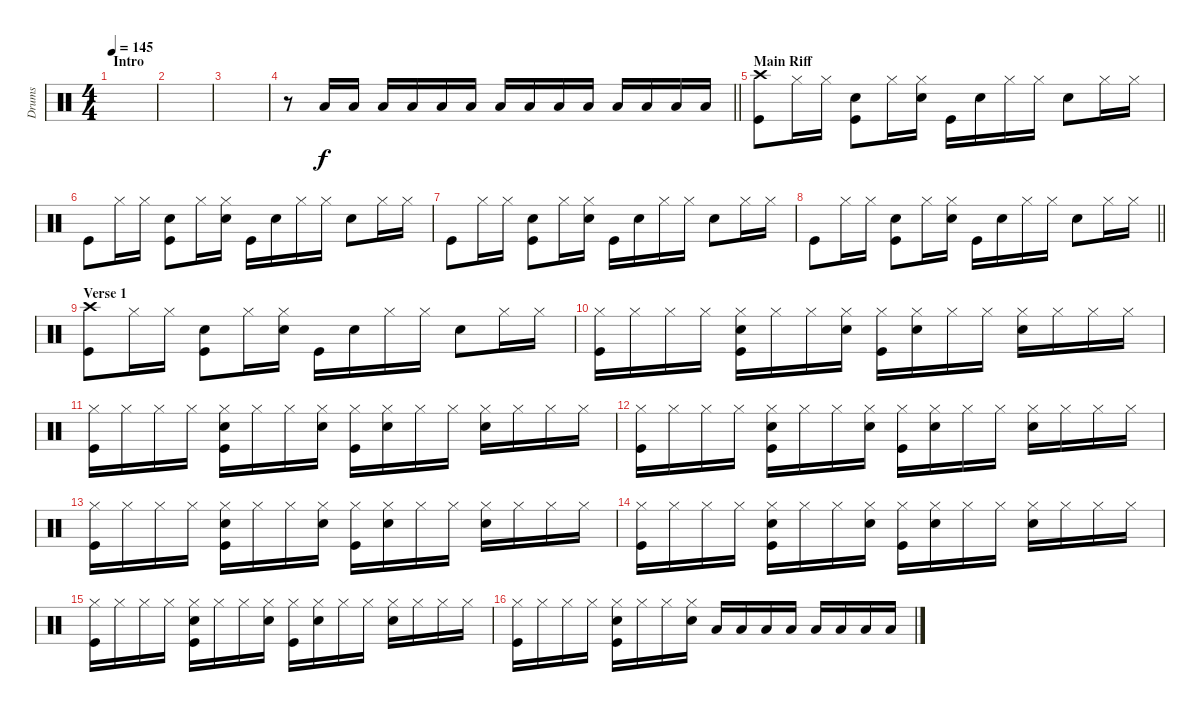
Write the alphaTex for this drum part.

\track ("Drums" "Drums") {instrument percussion}
\staff {score}
\articulation defaults
\ts (4 4)
\section ("" "Intro")
\tempo 145
\clef neutral
\ks c
|
|
|
\barLineRight lightlight
r.8 "Low Tom (hit)".16 "Low Tom (hit)".16 "Low Tom (hit)".16 "Low Tom (hit)".16 "Low Tom (hit)".16 "Low Tom (hit)".16 "Low Tom (hit)".16 "Low Tom (hit)".16 "Low Tom (hit)".16 "Low Tom (hit)".16 "Low Tom (hit)".16 "Low Tom (hit)".16 "Low Tom (hit)".16 "Low Tom (hit)".16 |
\section ("" "Main Riff")
("Crash high (hit)" "Kick (hit)").8 "Hi-Hat (closed)".16 "Hi-Hat (closed)".16 ("Electric Snare (hit)" "Kick (hit)").8 "Hi-Hat (closed)".16 ("Hi-Hat (closed)" "Electric Snare (hit)").16 "Kick (hit)".16 "Electric Snare (hit)".16 "Hi-Hat (closed)".16 "Hi-Hat (closed)".16 "Electric Snare (hit)".8 "Hi-Hat (closed)".16 "Hi-Hat (closed)".16 |
"Kick (hit)".8 "Hi-Hat (closed)".16 "Hi-Hat (closed)".16 ("Electric Snare (hit)" "Kick (hit)").8 "Hi-Hat (closed)".16 ("Hi-Hat (closed)" "Electric Snare (hit)").16 "Kick (hit)".16 "Electric Snare (hit)".16 "Hi-Hat (closed)".16 "Hi-Hat (closed)".16 "Electric Snare (hit)".8 "Hi-Hat (closed)".16 "Hi-Hat (closed)".16 |
"Kick (hit)".8 "Hi-Hat (closed)".16 "Hi-Hat (closed)".16 ("Electric Snare (hit)" "Kick (hit)").8 "Hi-Hat (closed)".16 ("Hi-Hat (closed)" "Electric Snare (hit)").16 "Kick (hit)".16 "Electric Snare (hit)".16 "Hi-Hat (closed)".16 "Hi-Hat (closed)".16 "Electric Snare (hit)".8 "Hi-Hat (closed)".16 "Hi-Hat (closed)".16 |
\barLineRight lightlight "Kick (hit)".8 "Hi-Hat (closed)".16 "Hi-Hat (closed)".16
("Electric Snare (hit)" "Kick (hit)").8 "Hi-Hat (closed)".16 ("Hi-Hat (closed)" "Electric Snare (hit)").16 "Kick (hit)".16 "Electric Snare (hit)".16 "Hi-Hat (closed)".16 "Hi-Hat (closed)".16 "Electric Snare (hit)".8 "Hi-Hat (closed)".16 "Hi-Hat (closed)".16 |
\section ("" "Verse 1")
("Crash high (hit)" "Kick (hit)").8 "Hi-Hat (closed)".16 "Hi-Hat (closed)".16 ("Electric Snare (hit)" "Kick (hit)").8 "Hi-Hat (closed)".16 ("Hi-Hat (closed)" "Electric Snare (hit)").16 "Kick (hit)".16 "Electric Snare (hit)".16 "Hi-Hat (closed)".16 "Hi-Hat (closed)".16 "Electric Snare (hit)".8 "Hi-Hat (closed)".16 "Hi-Hat (closed)".16 |
("Hi-Hat (closed)" "Kick (hit)").16 "Hi-Hat (closed)".16 "Hi-Hat (closed)".16 "Hi-Hat (closed)".16 ("Hi-Hat (closed)" "Electric Snare (hit)" "Kick (hit)").16 "Hi-Hat (closed)".16 "Hi-Hat (closed)".16 ("Hi-Hat (closed)" "Electric Snare (hit)").16 ("Hi-Hat (closed)" "Kick (hit)").16 ("Hi-Hat (closed)" "Electric Snare (hit)").16 "Hi-Hat (closed)".16 "Hi-Hat (closed)".16 ("Hi-Hat (closed)" "Electric Snare (hit)").16 "Hi-Hat (closed)".16 "Hi-Hat (closed)".16 "Hi-Hat (closed)".16 |
("Hi-Hat (closed)" "Kick (hit)").16 "Hi-Hat (closed)".16 "Hi-Hat (closed)".16 "Hi-Hat (closed)".16 ("Hi-Hat (closed)" "Electric Snare (hit)" "Kick (hit)").16 "Hi-Hat (closed)".16 "Hi-Hat (closed)".16 ("Hi-Hat (closed)" "Electric Snare (hit)").16 ("Hi-Hat (closed)" "Kick (hit)").16 ("Hi-Hat (closed)" "Electric Snare (hit)").16 "Hi-Hat (closed)".16 "Hi-Hat (closed)".16 ("Hi-Hat (closed)" "Electric Snare (hit)").16 "Hi-Hat (closed)".16 "Hi-Hat (closed)".16 "Hi-Hat (closed)".16 |
("Hi-Hat (closed)" "Kick (hit)").16 "Hi-Hat (closed)".16 "Hi-Hat (closed)".16 "Hi-Hat (closed)".16 ("Hi-Hat (closed)" "Electric Snare (hit)" "Kick (hit)").16 "Hi-Hat (closed)".16 "Hi-Hat (closed)".16 ("Hi-Hat (closed)" "Electric Snare (hit)").16 ("Hi-Hat (closed)" "Kick (hit)").16 ("Hi-Hat (closed)" "Electric Snare (hit)").16 "Hi-Hat (closed)".16 "Hi-Hat (closed)".16 ("Hi-Hat (closed)" "Electric Snare (hit)").16 "Hi-Hat (closed)".16 "Hi-Hat (closed)".16 "Hi-Hat (closed)".16 |
("Hi-Hat (closed)" "Kick (hit)").16 "Hi-Hat (closed)".16 "Hi-Hat (closed)".16 "Hi-Hat (closed)".16 ("Hi-Hat (closed)" "Electric Snare (hit)" "Kick (hit)").16 "Hi-Hat (closed)".16 "Hi-Hat (closed)".16 ("Hi-Hat (closed)" "Electric Snare (hit)").16 ("Hi-Hat (closed)" "Kick (hit)").16 ("Hi-Hat (closed)" "Electric Snare (hit)").16 "Hi-Hat (closed)".16 "Hi-Hat (closed)".16 ("Hi-Hat (closed)" "Electric Snare (hit)").16 "Hi-Hat (closed)".16 "Hi-Hat (closed)".16 "Hi-Hat (closed)".16 |
("Hi-Hat (closed)" "Kick (hit)").16 "Hi-Hat (closed)".16 "Hi-Hat (closed)".16 "Hi-Hat (closed)".16 ("Hi-Hat (closed)" "Electric Snare (hit)" "Kick (hit)").16 "Hi-Hat (closed)".16 "Hi-Hat (closed)".16 ("Hi-Hat (closed)" "Electric Snare (hit)").16 ("Hi-Hat (closed)" "Kick (hit)").16 ("Hi-Hat (closed)" "Electric Snare (hit)").16 "Hi-Hat (closed)".16 "Hi-Hat (closed)".16 ("Hi-Hat (closed)" "Electric Snare (hit)").16 "Hi-Hat (closed)".16 "Hi-Hat (closed)".16 "Hi-Hat (closed)".16 |
("Hi-Hat (closed)" "Kick (hit)").16 "Hi-Hat (closed)".16 "Hi-Hat (closed)".16 "Hi-Hat (closed)".16 ("Hi-Hat (closed)" "Electric Snare (hit)" "Kick (hit)").16 "Hi-Hat (closed)".16 "Hi-Hat (closed)".16 ("Hi-Hat (closed)" "Electric Snare (hit)").16 ("Hi-Hat (closed)" "Kick (hit)").16 ("Hi-Hat (closed)" "Electric Snare (hit)").16 "Hi-Hat (closed)".16 "Hi-Hat (closed)".16 ("Hi-Hat (closed)" "Electric Snare (hit)").16 "Hi-Hat (closed)".16 "Hi-Hat (closed)".16 "Hi-Hat (closed)".16 |
("Hi-Hat (closed)" "Kick (hit)").16 "Hi-Hat (closed)".16 "Hi-Hat (closed)".16 "Hi-Hat (closed)".16 ("Hi-Hat (closed)" "Electric Snare (hit)" "Kick (hit)").16 "Hi-Hat (closed)".16 "Hi-Hat (closed)".16 ("Hi-Hat (closed)" "Electric Snare (hit)").16 "Low Tom (hit)".16 "Low Tom (hit)".16 "Low Tom (hit)".16 "Low Tom (hit)".16 "Low Tom (hit)".16 "Low Tom (hit)".16 "Low Tom (hit)".16 "Low Tom (hit)".16
